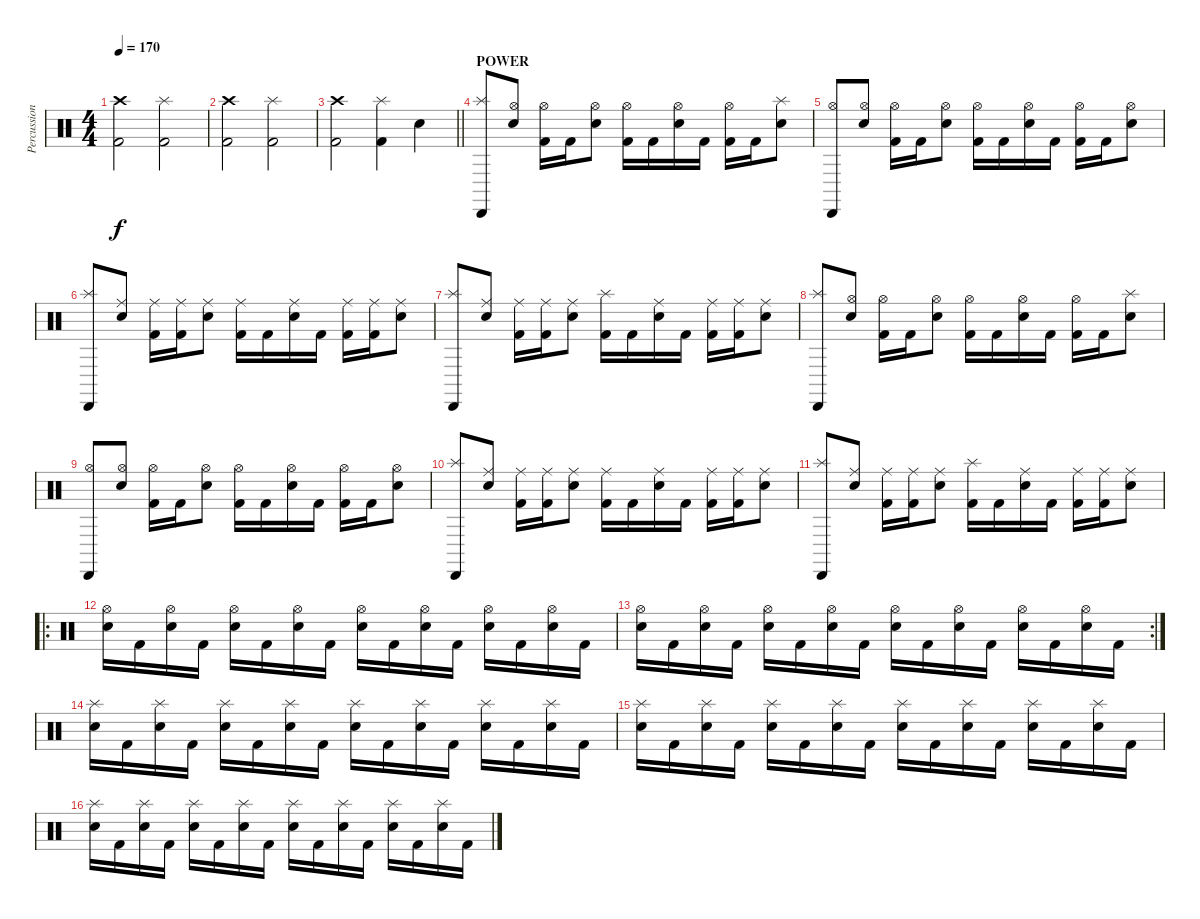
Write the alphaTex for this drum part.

\track ("Percussion" "Percussion") {instrument percussion}
\staff {score}
\articulation defaults
\ts (4 4)
\tempo 170
\clef neutral
\ks c
("Crash high (hit)" "Kick (hit) 2").2{dy f} ("Splash (hit)" "Kick (hit) 2").2 |
("Crash high (hit)" "Kick (hit) 2").2 ("Splash (hit)" "Kick (hit) 2").2 |
\barLineRight lightlight
("Crash high (hit)" "Kick (hit) 2").2 ("Splash (hit)" "Kick (hit) 2").4 "Electric Snare (hit)".4 |
\section ("" "POWER")
("Splash (hit)" "Cabasa (hit)").8 ("Hi-Hat (open)" "Electric Snare (hit)").8 ("Hi-Hat (open)" "Kick (hit) 2").16 "Kick (hit) 2".16 ("Hi-Hat (open)" "Electric Snare (hit)").8 ("Hi-Hat (open)" "Kick (hit) 2").16 "Kick (hit) 2".16 ("Hi-Hat (open)" "Electric Snare (hit)").16 "Kick (hit) 2".16 ("Hi-Hat (open)" "Kick (hit) 2").16 "Kick (hit) 2".16 ("Splash (hit)" "Electric Snare (hit)").8 |
("Hi-Hat (open)" "Cabasa (hit)").8 ("Hi-Hat (open)" "Electric Snare (hit)").8 ("Hi-Hat (open)" "Kick (hit) 2").16 "Kick (hit) 2".16 ("Hi-Hat (open)" "Electric Snare (hit)").8 ("Hi-Hat (open)" "Kick (hit) 2").16 "Kick (hit) 2".16 ("Hi-Hat (open)" "Electric Snare (hit)").16 "Kick (hit) 2".16 ("Hi-Hat (open)" "Kick (hit) 2").16 "Kick (hit) 2".16 ("Hi-Hat (open)" "Electric Snare (hit)").8 |
("Splash (hit)" "Cabasa (hit)").8 ("Ride (middle)" "Electric Snare (hit)").8 ("Ride (middle)" "Kick (hit) 2").16 ("Ride (middle)" "Kick (hit) 2").16 ("Ride (middle)" "Electric Snare (hit)").8 ("Ride (middle)" "Kick (hit) 2").16 "Kick (hit) 2".16 ("Ride (middle)" "Electric Snare (hit)").16 "Kick (hit) 2".16 ("Ride (middle)" "Kick (hit) 2").16 ("Ride (middle)" "Kick (hit) 2").16 ("Ride (middle)" "Electric Snare (hit)").8 |
("Splash (hit)" "Cabasa (hit)").8 ("Ride (middle)" "Electric Snare (hit)").8 ("Ride (middle)" "Kick (hit) 2").16 ("Ride (middle)" "Kick (hit) 2").16 ("Ride (middle)" "Electric Snare (hit)").8 ("Splash (hit)" "Kick (hit) 2").16 "Kick (hit) 2".16 ("Ride (middle)" "Electric Snare (hit)").16 "Kick (hit) 2".16 ("Ride (middle)" "Kick (hit) 2").16 ("Ride (middle)" "Kick (hit) 2").16 ("Ride (middle)" "Electric Snare (hit)").8 |
("Splash (hit)" "Cabasa (hit)").8 ("Hi-Hat (open)" "Electric Snare (hit)").8 ("Hi-Hat (open)" "Kick (hit) 2").16 "Kick (hit) 2".16 ("Hi-Hat (open)" "Electric Snare (hit)").8 ("Hi-Hat (open)" "Kick (hit) 2").16 "Kick (hit) 2".16 ("Hi-Hat (open)" "Electric Snare (hit)").16 "Kick (hit) 2".16 ("Hi-Hat (open)" "Kick (hit) 2").16 "Kick (hit) 2".16 ("Splash (hit)" "Electric Snare (hit)").8 |
("Hi-Hat (open)" "Cabasa (hit)").8 ("Hi-Hat (open)" "Electric Snare (hit)").8 ("Hi-Hat (open)" "Kick (hit) 2").16 "Kick (hit) 2".16 ("Hi-Hat (open)" "Electric Snare (hit)").8 ("Hi-Hat (open)" "Kick (hit) 2").16 "Kick (hit) 2".16 ("Hi-Hat (open)" "Electric Snare (hit)").16 "Kick (hit) 2".16 ("Hi-Hat (open)" "Kick (hit) 2").16 "Kick (hit) 2".16 ("Hi-Hat (open)" "Electric Snare (hit)").8 |
("Splash (hit)" "Cabasa (hit)").8 ("Ride (middle)" "Electric Snare (hit)").8 ("Ride (middle)" "Kick (hit) 2").16 ("Ride (middle)" "Kick (hit) 2").16 ("Ride (middle)" "Electric Snare (hit)").8 ("Ride (middle)" "Kick (hit) 2").16 "Kick (hit) 2".16 ("Ride (middle)" "Electric Snare (hit)").16 "Kick (hit) 2".16 ("Ride (middle)" "Kick (hit) 2").16 ("Ride (middle)" "Kick (hit) 2").16 ("Ride (middle)" "Electric Snare (hit)").8 |
("Splash (hit)" "Cabasa (hit)").8 ("Ride (middle)" "Electric Snare (hit)").8 ("Ride (middle)" "Kick (hit) 2").16 ("Ride (middle)" "Kick (hit) 2").16 ("Ride (middle)" "Electric Snare (hit)").8 ("Splash (hit)" "Kick (hit) 2").16 "Kick (hit) 2".16 ("Ride (middle)" "Electric Snare (hit)").16 "Kick (hit) 2".16 ("Ride (middle)" "Kick (hit) 2").16 ("Ride (middle)" "Kick (hit) 2").16 ("Ride (middle)" "Electric Snare (hit)").8 |
\ro
("Hi-Hat (open)" "Electric Snare (hit)").16 "Kick (hit) 2".16 ("Hi-Hat (open)" "Electric Snare (hit)").16 "Kick (hit) 2".16 ("Hi-Hat (open)" "Electric Snare (hit)").16 "Kick (hit) 2".16 ("Hi-Hat (open)" "Electric Snare (hit)").16 "Kick (hit) 2".16 ("Hi-Hat (open)" "Electric Snare (hit)").16 "Kick (hit) 2".16 ("Hi-Hat (open)" "Electric Snare (hit)").16 "Kick (hit) 2".16 ("Hi-Hat (open)" "Electric Snare (hit)").16 "Kick (hit) 2".16 ("Hi-Hat (open)" "Electric Snare (hit)").16 "Kick (hit) 2".16 |
\rc 2
("Hi-Hat (open)" "Electric Snare (hit)").16 "Kick (hit) 2".16 ("Hi-Hat (open)" "Electric Snare (hit)").16 "Kick (hit) 2".16 ("Hi-Hat (open)" "Electric Snare (hit)").16 "Kick (hit) 2".16 ("Hi-Hat (open)" "Electric Snare (hit)").16 "Kick (hit) 2".16 ("Hi-Hat (open)" "Electric Snare (hit)").16 "Kick (hit) 2".16 ("Hi-Hat (open)" "Electric Snare (hit)").16 "Kick (hit) 2".16 ("Hi-Hat (open)" "Electric Snare (hit)").16 "Kick (hit) 2".16 ("Hi-Hat (open)" "Electric Snare (hit)").16 "Kick (hit) 2".16 |
("Splash (hit)" "Electric Snare (hit)").16 "Kick (hit) 2".16 ("Splash (hit)" "Electric Snare (hit)").16 "Kick (hit) 2".16 ("Splash (hit)" "Electric Snare (hit)").16 "Kick (hit) 2".16 ("Splash (hit)" "Electric Snare (hit)").16 "Kick (hit) 2".16 ("Splash (hit)" "Electric Snare (hit)").16 "Kick (hit) 2".16 ("Splash (hit)" "Electric Snare (hit)").16 "Kick (hit) 2".16 ("Splash (hit)" "Electric Snare (hit)").16 "Kick (hit) 2".16 ("Splash (hit)" "Electric Snare (hit)").16 "Kick (hit) 2".16 |
("Splash (hit)" "Electric Snare (hit)").16 "Kick (hit) 2".16 ("Splash (hit)" "Electric Snare (hit)").16 "Kick (hit) 2".16 ("Splash (hit)" "Electric Snare (hit)").16 "Kick (hit) 2".16 ("Splash (hit)" "Electric Snare (hit)").16 "Kick (hit) 2".16 ("Splash (hit)" "Electric Snare (hit)").16 "Kick (hit) 2".16 ("Splash (hit)" "Electric Snare (hit)").16 "Kick (hit) 2".16 ("Splash (hit)" "Electric Snare (hit)").16 "Kick (hit) 2".16 ("Splash (hit)" "Electric Snare (hit)").16 "Kick (hit) 2".16 |
("Splash (hit)" "Electric Snare (hit)").16 "Kick (hit) 2".16 ("Splash (hit)" "Electric Snare (hit)").16 "Kick (hit) 2".16 ("Splash (hit)" "Electric Snare (hit)").16 "Kick (hit) 2".16 ("Splash (hit)" "Electric Snare (hit)").16 "Kick (hit) 2".16 ("Splash (hit)" "Electric Snare (hit)").16 "Kick (hit) 2".16 ("Splash (hit)" "Electric Snare (hit)").16 "Kick (hit) 2".16 ("Splash (hit)" "Electric Snare (hit)").16 "Kick (hit) 2".16 ("Splash (hit)" "Electric Snare (hit)").16 "Kick (hit) 2".16
